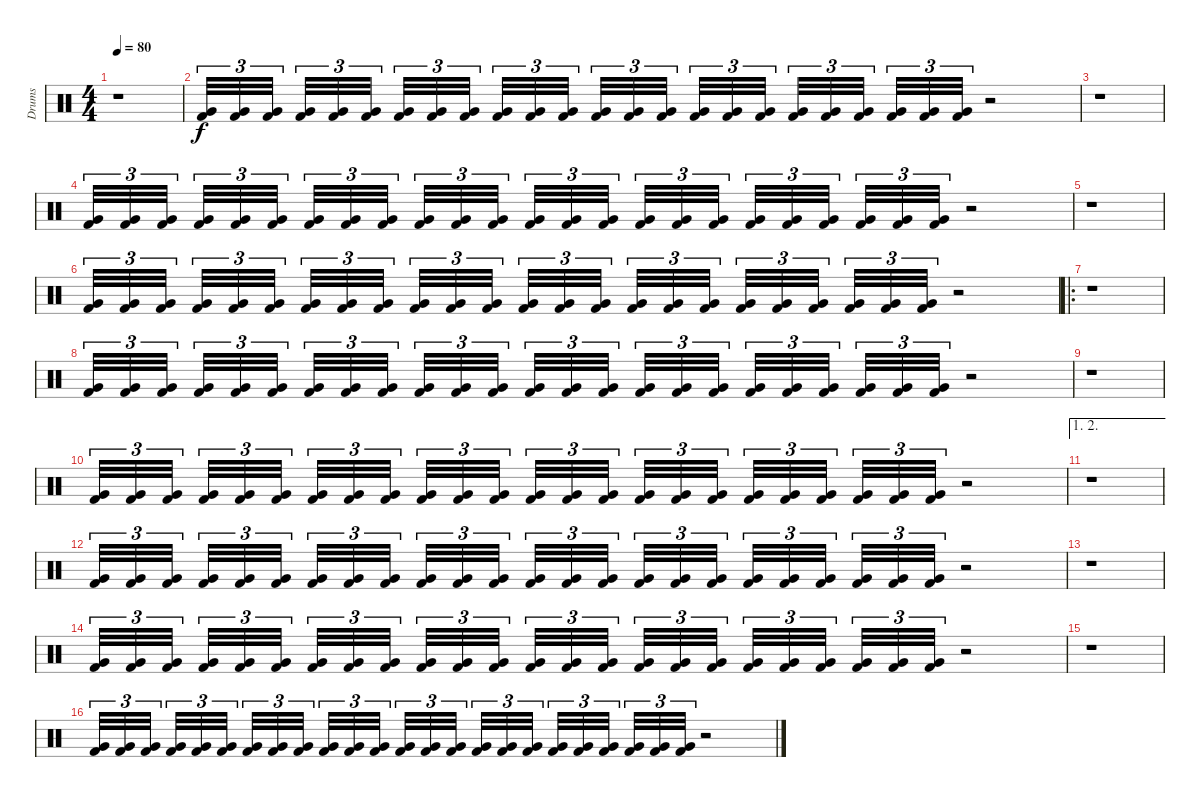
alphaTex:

\track ("Drums" "Drums") {instrument percussion}
\staff {score}
\articulation defaults
\ts (4 4)
\tempo 80
\clef neutral
\ks c
r.1{dy f} |
("Very Low Tom (hit)" "Kick (hit) 2").32{tu (3 2)} ("Very Low Tom (hit)" "Kick (hit) 2").32{tu (3 2)} ("Very Low Tom (hit)" "Kick (hit) 2").32{tu (3 2)} ("Very Low Tom (hit)" "Kick (hit) 2").32{tu (3 2)} ("Very Low Tom (hit)" "Kick (hit) 2").32{tu (3 2)} ("Very Low Tom (hit)" "Kick (hit) 2").32{tu (3 2)} ("Very Low Tom (hit)" "Kick (hit) 2").32{tu (3 2)} ("Very Low Tom (hit)" "Kick (hit) 2").32{tu (3 2)} ("Very Low Tom (hit)" "Kick (hit) 2").32{tu (3 2)} ("Very Low Tom (hit)" "Kick (hit) 2").32{tu (3 2)} ("Very Low Tom (hit)" "Kick (hit) 2").32{tu (3 2)} ("Very Low Tom (hit)" "Kick (hit) 2").32{tu (3 2)} ("Very Low Tom (hit)" "Kick (hit) 2").32{tu (3 2)} ("Very Low Tom (hit)" "Kick (hit) 2").32{tu (3 2)} ("Very Low Tom (hit)" "Kick (hit) 2").32{tu (3 2)} ("Very Low Tom (hit)" "Kick (hit) 2").32{tu (3 2)} ("Very Low Tom (hit)" "Kick (hit) 2").32{tu (3 2)} ("Very Low Tom (hit)" "Kick (hit) 2").32{tu (3 2)} ("Very Low Tom (hit)" "Kick (hit) 2").32{tu (3 2)} ("Very Low Tom (hit)" "Kick (hit) 2").32{tu (3 2)} ("Very Low Tom (hit)" "Kick (hit) 2").32{tu (3 2)} ("Very Low Tom (hit)" "Kick (hit) 2").32{tu (3 2)} ("Very Low Tom (hit)" "Kick (hit) 2").32{tu (3 2)} ("Very Low Tom (hit)" "Kick (hit) 2").32{tu (3 2)} r.2 |
r.1 |
("Very Low Tom (hit)" "Kick (hit) 2").32{tu (3 2)} ("Very Low Tom (hit)" "Kick (hit) 2").32{tu (3 2)} ("Very Low Tom (hit)" "Kick (hit) 2").32{tu (3 2)} ("Very Low Tom (hit)" "Kick (hit) 2").32{tu (3 2)} ("Very Low Tom (hit)" "Kick (hit) 2").32{tu (3 2)} ("Very Low Tom (hit)" "Kick (hit) 2").32{tu (3 2)} ("Very Low Tom (hit)" "Kick (hit) 2").32{tu (3 2)} ("Very Low Tom (hit)" "Kick (hit) 2").32{tu (3 2)} ("Very Low Tom (hit)" "Kick (hit) 2").32{tu (3 2)} ("Very Low Tom (hit)" "Kick (hit) 2").32{tu (3 2)} ("Very Low Tom (hit)" "Kick (hit) 2").32{tu (3 2)} ("Very Low Tom (hit)" "Kick (hit) 2").32{tu (3 2)} ("Very Low Tom (hit)" "Kick (hit) 2").32{tu (3 2)} ("Very Low Tom (hit)" "Kick (hit) 2").32{tu (3 2)} ("Very Low Tom (hit)" "Kick (hit) 2").32{tu (3 2)} ("Very Low Tom (hit)" "Kick (hit) 2").32{tu (3 2)} ("Very Low Tom (hit)" "Kick (hit) 2").32{tu (3 2)} ("Very Low Tom (hit)" "Kick (hit) 2").32{tu (3 2)} ("Very Low Tom (hit)" "Kick (hit) 2").32{tu (3 2)} ("Very Low Tom (hit)" "Kick (hit) 2").32{tu (3 2)} ("Very Low Tom (hit)" "Kick (hit) 2").32{tu (3 2)} ("Very Low Tom (hit)" "Kick (hit) 2").32{tu (3 2)} ("Very Low Tom (hit)" "Kick (hit) 2").32{tu (3 2)} ("Very Low Tom (hit)" "Kick (hit) 2").32{tu (3 2)} r.2 |
r.1 |
("Very Low Tom (hit)" "Kick (hit) 2").32{tu (3 2)} ("Very Low Tom (hit)" "Kick (hit) 2").32{tu (3 2)} ("Very Low Tom (hit)" "Kick (hit) 2").32{tu (3 2)} ("Very Low Tom (hit)" "Kick (hit) 2").32{tu (3 2)} ("Very Low Tom (hit)" "Kick (hit) 2").32{tu (3 2)} ("Very Low Tom (hit)" "Kick (hit) 2").32{tu (3 2)} ("Very Low Tom (hit)" "Kick (hit) 2").32{tu (3 2)} ("Very Low Tom (hit)" "Kick (hit) 2").32{tu (3 2)} ("Very Low Tom (hit)" "Kick (hit) 2").32{tu (3 2)} ("Very Low Tom (hit)" "Kick (hit) 2").32{tu (3 2)} ("Very Low Tom (hit)" "Kick (hit) 2").32{tu (3 2)} ("Very Low Tom (hit)" "Kick (hit) 2").32{tu (3 2)} ("Very Low Tom (hit)" "Kick (hit) 2").32{tu (3 2)} ("Very Low Tom (hit)" "Kick (hit) 2").32{tu (3 2)} ("Very Low Tom (hit)" "Kick (hit) 2").32{tu (3 2)} ("Very Low Tom (hit)" "Kick (hit) 2").32{tu (3 2)} ("Very Low Tom (hit)" "Kick (hit) 2").32{tu (3 2)} ("Very Low Tom (hit)" "Kick (hit) 2").32{tu (3 2)} ("Very Low Tom (hit)" "Kick (hit) 2").32{tu (3 2)} ("Very Low Tom (hit)" "Kick (hit) 2").32{tu (3 2)} ("Very Low Tom (hit)" "Kick (hit) 2").32{tu (3 2)} ("Very Low Tom (hit)" "Kick (hit) 2").32{tu (3 2)} ("Very Low Tom (hit)" "Kick (hit) 2").32{tu (3 2)} ("Very Low Tom (hit)" "Kick (hit) 2").32{tu (3 2)} r.2 |
\ro
r.1 |
("Very Low Tom (hit)" "Kick (hit) 2").32{tu (3 2)} ("Very Low Tom (hit)" "Kick (hit) 2").32{tu (3 2)} ("Very Low Tom (hit)" "Kick (hit) 2").32{tu (3 2)} ("Very Low Tom (hit)" "Kick (hit) 2").32{tu (3 2)} ("Very Low Tom (hit)" "Kick (hit) 2").32{tu (3 2)} ("Very Low Tom (hit)" "Kick (hit) 2").32{tu (3 2)} ("Very Low Tom (hit)" "Kick (hit) 2").32{tu (3 2)} ("Very Low Tom (hit)" "Kick (hit) 2").32{tu (3 2)} ("Very Low Tom (hit)" "Kick (hit) 2").32{tu (3 2)} ("Very Low Tom (hit)" "Kick (hit) 2").32{tu (3 2)} ("Very Low Tom (hit)" "Kick (hit) 2").32{tu (3 2)} ("Very Low Tom (hit)" "Kick (hit) 2").32{tu (3 2)} ("Very Low Tom (hit)" "Kick (hit) 2").32{tu (3 2)} ("Very Low Tom (hit)" "Kick (hit) 2").32{tu (3 2)} ("Very Low Tom (hit)" "Kick (hit) 2").32{tu (3 2)} ("Very Low Tom (hit)" "Kick (hit) 2").32{tu (3 2)} ("Very Low Tom (hit)" "Kick (hit) 2").32{tu (3 2)} ("Very Low Tom (hit)" "Kick (hit) 2").32{tu (3 2)} ("Very Low Tom (hit)" "Kick (hit) 2").32{tu (3 2)} ("Very Low Tom (hit)" "Kick (hit) 2").32{tu (3 2)} ("Very Low Tom (hit)" "Kick (hit) 2").32{tu (3 2)} ("Very Low Tom (hit)" "Kick (hit) 2").32{tu (3 2)} ("Very Low Tom (hit)" "Kick (hit) 2").32{tu (3 2)} ("Very Low Tom (hit)" "Kick (hit) 2").32{tu (3 2)} r.2 |
r.1 |
("Very Low Tom (hit)" "Kick (hit) 2").32{tu (3 2)} ("Very Low Tom (hit)" "Kick (hit) 2").32{tu (3 2)} ("Very Low Tom (hit)" "Kick (hit) 2").32{tu (3 2)} ("Very Low Tom (hit)" "Kick (hit) 2").32{tu (3 2)} ("Very Low Tom (hit)" "Kick (hit) 2").32{tu (3 2)} ("Very Low Tom (hit)" "Kick (hit) 2").32{tu (3 2)} ("Very Low Tom (hit)" "Kick (hit) 2").32{tu (3 2)} ("Very Low Tom (hit)" "Kick (hit) 2").32{tu (3 2)} ("Very Low Tom (hit)" "Kick (hit) 2").32{tu (3 2)} ("Very Low Tom (hit)" "Kick (hit) 2").32{tu (3 2)} ("Very Low Tom (hit)" "Kick (hit) 2").32{tu (3 2)} ("Very Low Tom (hit)" "Kick (hit) 2").32{tu (3 2)} ("Very Low Tom (hit)" "Kick (hit) 2").32{tu (3 2)} ("Very Low Tom (hit)" "Kick (hit) 2").32{tu (3 2)} ("Very Low Tom (hit)" "Kick (hit) 2").32{tu (3 2)} ("Very Low Tom (hit)" "Kick (hit) 2").32{tu (3 2)} ("Very Low Tom (hit)" "Kick (hit) 2").32{tu (3 2)} ("Very Low Tom (hit)" "Kick (hit) 2").32{tu (3 2)} ("Very Low Tom (hit)" "Kick (hit) 2").32{tu (3 2)} ("Very Low Tom (hit)" "Kick (hit) 2").32{tu (3 2)} ("Very Low Tom (hit)" "Kick (hit) 2").32{tu (3 2)} ("Very Low Tom (hit)" "Kick (hit) 2").32{tu (3 2)} ("Very Low Tom (hit)" "Kick (hit) 2").32{tu (3 2)} ("Very Low Tom (hit)" "Kick (hit) 2").32{tu (3 2)} r.2 |
\ae (1 2)
r.1 |
("Very Low Tom (hit)" "Kick (hit) 2").32{tu (3 2)} ("Very Low Tom (hit)" "Kick (hit) 2").32{tu (3 2)} ("Very Low Tom (hit)" "Kick (hit) 2").32{tu (3 2)} ("Very Low Tom (hit)" "Kick (hit) 2").32{tu (3 2)} ("Very Low Tom (hit)" "Kick (hit) 2").32{tu (3 2)} ("Very Low Tom (hit)" "Kick (hit) 2").32{tu (3 2)} ("Very Low Tom (hit)" "Kick (hit) 2").32{tu (3 2)} ("Very Low Tom (hit)" "Kick (hit) 2").32{tu (3 2)} ("Very Low Tom (hit)" "Kick (hit) 2").32{tu (3 2)} ("Very Low Tom (hit)" "Kick (hit) 2").32{tu (3 2)} ("Very Low Tom (hit)" "Kick (hit) 2").32{tu (3 2)} ("Very Low Tom (hit)" "Kick (hit) 2").32{tu (3 2)} ("Very Low Tom (hit)" "Kick (hit) 2").32{tu (3 2)} ("Very Low Tom (hit)" "Kick (hit) 2").32{tu (3 2)} ("Very Low Tom (hit)" "Kick (hit) 2").32{tu (3 2)} ("Very Low Tom (hit)" "Kick (hit) 2").32{tu (3 2)} ("Very Low Tom (hit)" "Kick (hit) 2").32{tu (3 2)} ("Very Low Tom (hit)" "Kick (hit) 2").32{tu (3 2)} ("Very Low Tom (hit)" "Kick (hit) 2").32{tu (3 2)} ("Very Low Tom (hit)" "Kick (hit) 2").32{tu (3 2)} ("Very Low Tom (hit)" "Kick (hit) 2").32{tu (3 2)} ("Very Low Tom (hit)" "Kick (hit) 2").32{tu (3 2)} ("Very Low Tom (hit)" "Kick (hit) 2").32{tu (3 2)} ("Very Low Tom (hit)" "Kick (hit) 2").32{tu (3 2)} r.2 |
r.1 |
("Very Low Tom (hit)" "Kick (hit) 2").32{tu (3 2)} ("Very Low Tom (hit)" "Kick (hit) 2").32{tu (3 2)} ("Very Low Tom (hit)" "Kick (hit) 2").32{tu (3 2)} ("Very Low Tom (hit)" "Kick (hit) 2").32{tu (3 2)} ("Very Low Tom (hit)" "Kick (hit) 2").32{tu (3 2)} ("Very Low Tom (hit)" "Kick (hit) 2").32{tu (3 2)} ("Very Low Tom (hit)" "Kick (hit) 2").32{tu (3 2)} ("Very Low Tom (hit)" "Kick (hit) 2").32{tu (3 2)} ("Very Low Tom (hit)" "Kick (hit) 2").32{tu (3 2)} ("Very Low Tom (hit)" "Kick (hit) 2").32{tu (3 2)} ("Very Low Tom (hit)" "Kick (hit) 2").32{tu (3 2)} ("Very Low Tom (hit)" "Kick (hit) 2").32{tu (3 2)} ("Very Low Tom (hit)" "Kick (hit) 2").32{tu (3 2)} ("Very Low Tom (hit)" "Kick (hit) 2").32{tu (3 2)} ("Very Low Tom (hit)" "Kick (hit) 2").32{tu (3 2)} ("Very Low Tom (hit)" "Kick (hit) 2").32{tu (3 2)} ("Very Low Tom (hit)" "Kick (hit) 2").32{tu (3 2)} ("Very Low Tom (hit)" "Kick (hit) 2").32{tu (3 2)} ("Very Low Tom (hit)" "Kick (hit) 2").32{tu (3 2)} ("Very Low Tom (hit)" "Kick (hit) 2").32{tu (3 2)} ("Very Low Tom (hit)" "Kick (hit) 2").32{tu (3 2)} ("Very Low Tom (hit)" "Kick (hit) 2").32{tu (3 2)} ("Very Low Tom (hit)" "Kick (hit) 2").32{tu (3 2)} ("Very Low Tom (hit)" "Kick (hit) 2").32{tu (3 2)} r.2 |
r.1 |
("Very Low Tom (hit)" "Kick (hit) 2").32{tu (3 2)} ("Very Low Tom (hit)" "Kick (hit) 2").32{tu (3 2)} ("Very Low Tom (hit)" "Kick (hit) 2").32{tu (3 2)} ("Very Low Tom (hit)" "Kick (hit) 2").32{tu (3 2)} ("Very Low Tom (hit)" "Kick (hit) 2").32{tu (3 2)} ("Very Low Tom (hit)" "Kick (hit) 2").32{tu (3 2)} ("Very Low Tom (hit)" "Kick (hit) 2").32{tu (3 2)} ("Very Low Tom (hit)" "Kick (hit) 2").32{tu (3 2)} ("Very Low Tom (hit)" "Kick (hit) 2").32{tu (3 2)} ("Very Low Tom (hit)" "Kick (hit) 2").32{tu (3 2)} ("Very Low Tom (hit)" "Kick (hit) 2").32{tu (3 2)} ("Very Low Tom (hit)" "Kick (hit) 2").32{tu (3 2)} ("Very Low Tom (hit)" "Kick (hit) 2").32{tu (3 2)} ("Very Low Tom (hit)" "Kick (hit) 2").32{tu (3 2)} ("Very Low Tom (hit)" "Kick (hit) 2").32{tu (3 2)} ("Very Low Tom (hit)" "Kick (hit) 2").32{tu (3 2)} ("Very Low Tom (hit)" "Kick (hit) 2").32{tu (3 2)} ("Very Low Tom (hit)" "Kick (hit) 2").32{tu (3 2)} ("Very Low Tom (hit)" "Kick (hit) 2").32{tu (3 2)} ("Very Low Tom (hit)" "Kick (hit) 2").32{tu (3 2)} ("Very Low Tom (hit)" "Kick (hit) 2").32{tu (3 2)} ("Very Low Tom (hit)" "Kick (hit) 2").32{tu (3 2)} ("Very Low Tom (hit)" "Kick (hit) 2").32{tu (3 2)} ("Very Low Tom (hit)" "Kick (hit) 2").32{tu (3 2)} r.2
